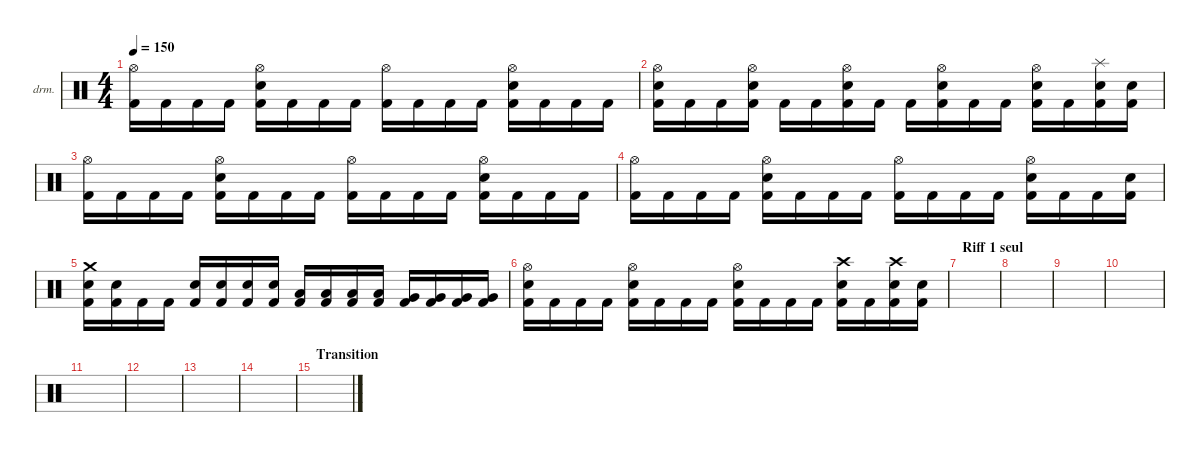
\defaultSystemsLayout 4
\hideDynamics
\bracketExtendMode nobrackets
\firstSystemTrackNameOrientation horizontal
\otherSystemsTrackNameOrientation horizontal
\track ("Drumkit" "drm.") {instrument percussion}
\staff {score}
\articulation defaults
\ts (4 4)
\tempo 150
\clef neutral
\ks c
("Hi-Hat (open)" "Kick (hit) 2").16{dy ff} "Kick (hit) 2".16 "Kick (hit) 2".16 "Kick (hit) 2".16 ("Hi-Hat (open)" "Snare (hit) 2" "Kick (hit) 2").16 "Kick (hit) 2".16 "Kick (hit) 2".16 "Kick (hit) 2".16 ("Hi-Hat (open)" "Kick (hit) 2").16 "Kick (hit) 2".16 "Kick (hit) 2".16 "Kick (hit) 2".16 ("Hi-Hat (open)" "Snare (hit) 2" "Kick (hit) 2").16 "Kick (hit) 2".16 "Kick (hit) 2".16 "Kick (hit) 2".16 |
("Hi-Hat (open)" "Snare (hit) 2" "Kick (hit) 2").16 "Kick (hit) 2".16 "Kick (hit) 2".16 ("Hi-Hat (open)" "Snare (hit) 2" "Kick (hit) 2").16 "Kick (hit) 2".16 "Kick (hit) 2".16 ("Hi-Hat (open)" "Snare (hit) 2" "Kick (hit) 2").16 "Kick (hit) 2".16 "Kick (hit) 2".16 ("Hi-Hat (open)" "Snare (hit) 2" "Kick (hit) 2").16 "Kick (hit) 2".16 "Kick (hit) 2".16 ("Hi-Hat (open)" "Snare (hit) 2" "Kick (hit) 2").16 "Kick (hit) 2".16 ("Splash (hit)" "Snare (hit) 2" "Kick (hit) 2").16 ("Snare (hit) 2" "Kick (hit) 2").16 |
("Hi-Hat (open)" "Kick (hit) 2").16 "Kick (hit) 2".16 "Kick (hit) 2".16 "Kick (hit) 2".16 ("Hi-Hat (open)" "Snare (hit) 2" "Kick (hit) 2").16 "Kick (hit) 2".16 "Kick (hit) 2".16 "Kick (hit) 2".16 ("Hi-Hat (open)" "Kick (hit) 2").16 "Kick (hit) 2".16 "Kick (hit) 2".16 "Kick (hit) 2".16 ("Hi-Hat (open)" "Snare (hit) 2" "Kick (hit) 2").16 "Kick (hit) 2".16 "Kick (hit) 2".16 "Kick (hit) 2".16 |
("Hi-Hat (open)" "Kick (hit) 2").16 "Kick (hit) 2".16 "Kick (hit) 2".16 "Kick (hit) 2".16 ("Hi-Hat (open)" "Snare (hit) 2" "Kick (hit) 2").16 "Kick (hit) 2".16 "Kick (hit) 2".16 "Kick (hit) 2".16 ("Hi-Hat (open)" "Kick (hit) 2").16 "Kick (hit) 2".16 "Kick (hit) 2".16 "Kick (hit) 2".16 ("Hi-Hat (open)" "Snare (hit) 2" "Kick (hit) 2").16 "Kick (hit) 2".16 "Kick (hit) 2".16 ("Snare (hit) 2" "Kick (hit) 2").16 |
("Crash medium (hit)" "Snare (hit) 2" "Kick (hit) 2").16{dy mf} ("Snare (hit) 2" "Kick (hit) 2").16 "Kick (hit) 2".16 "Kick (hit) 2".16 ("Snare (hit) 2" "Kick (hit) 2").16 ("Snare (hit) 2" "Kick (hit) 2").16 ("Snare (hit) 2" "Kick (hit) 2").16 ("Snare (hit) 2" "Kick (hit) 2").16 ("Low Tom (hit)" "Kick (hit) 2").16 ("Low Tom (hit)" "Kick (hit) 2").16 ("Low Tom (hit)" "Kick (hit) 2").16 ("Low Tom (hit)" "Kick (hit) 2").16 ("Very Low Tom (hit)" "Kick (hit) 2").16 ("Very Low Tom (hit)" "Kick (hit) 2").16 ("Very Low Tom (hit)" "Kick (hit) 2").16 ("Very Low Tom (hit)" "Kick (hit) 2").16 |
("Hi-Hat (open)" "Snare (hit) 2" "Kick (hit) 2").16 "Kick (hit) 2".16 "Kick (hit) 2".16 "Kick (hit) 2".16 ("Hi-Hat (open)" "Snare (hit) 2" "Kick (hit) 2").16 "Kick (hit) 2".16 "Kick (hit) 2".16 "Kick (hit) 2".16 ("Hi-Hat (open)" "Snare (hit) 2" "Kick (hit) 2").16 "Kick (hit) 2".16 "Kick (hit) 2".16 "Kick (hit) 2".16 ("Crash high (hit)" "Snare (hit) 2" "Kick (hit) 2").16 "Kick (hit) 2".16 ("Crash high (hit)" "Snare (hit) 2" "Kick (hit) 2").16 ("Snare (hit) 2" "Kick (hit) 2").16 |
\section ("" "Riff 1 seul")
|
|
|
|
|
|
|
|
\section ("" "Transition")
